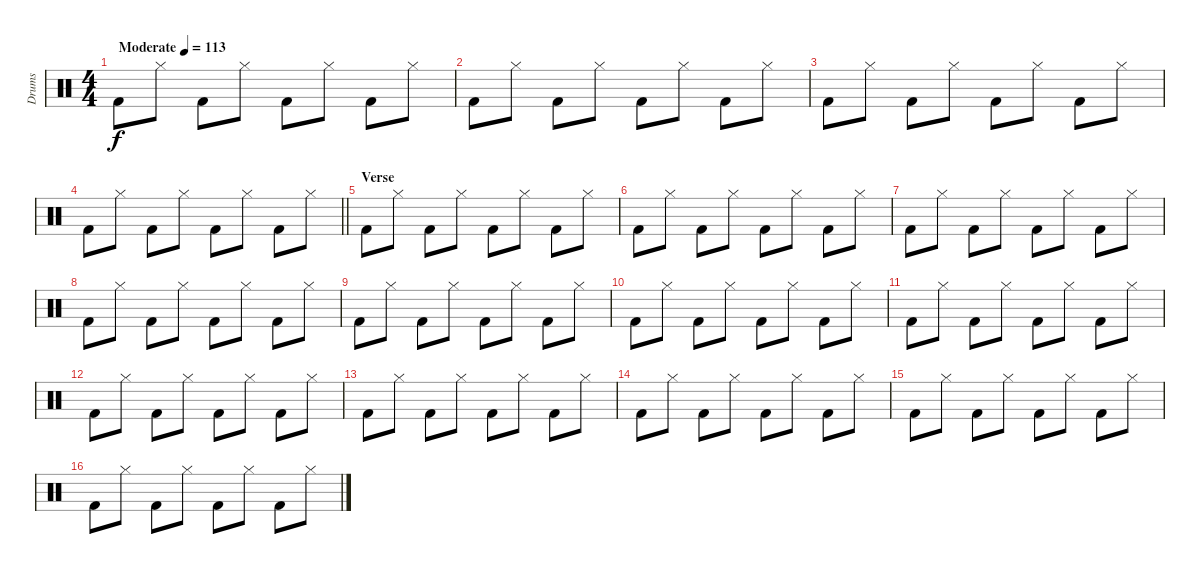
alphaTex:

\track ("Drums" "Drums") {instrument percussion}
\staff {score}
\articulation defaults
\ts (4 4)
\tempo (113 "Moderate")
\clef neutral
\ks c "Kick (hit) 2".8{dy f} "Hi-Hat (closed)".8 "Kick (hit) 2".8 "Hi-Hat (closed)".8 "Kick (hit) 2".8 "Hi-Hat (closed)".8 "Kick (hit) 2".8 "Hi-Hat (closed)".8
|
"Kick (hit) 2".8 "Hi-Hat (closed)".8 "Kick (hit) 2".8 "Hi-Hat (closed)".8 "Kick (hit) 2".8 "Hi-Hat (closed)".8 "Kick (hit) 2".8 "Hi-Hat (closed)".8 |
"Kick (hit) 2".8 "Hi-Hat (closed)".8 "Kick (hit) 2".8 "Hi-Hat (closed)".8 "Kick (hit) 2".8 "Hi-Hat (closed)".8 "Kick (hit) 2".8 "Hi-Hat (closed)".8 |
\barLineRight lightlight "Kick (hit) 2".8 "Hi-Hat (closed)".8 "Kick (hit) 2".8 "Hi-Hat (closed)".8 "Kick (hit) 2".8 "Hi-Hat (closed)".8 "Kick (hit) 2".8 "Hi-Hat (closed)".8
|
\section ("" "Verse")
"Kick (hit) 2".8 "Hi-Hat (closed)".8 "Kick (hit) 2".8 "Hi-Hat (closed)".8 "Kick (hit) 2".8 "Hi-Hat (closed)".8 "Kick (hit) 2".8 "Hi-Hat (closed)".8 |
"Kick (hit) 2".8 "Hi-Hat (closed)".8 "Kick (hit) 2".8 "Hi-Hat (closed)".8 "Kick (hit) 2".8 "Hi-Hat (closed)".8 "Kick (hit) 2".8 "Hi-Hat (closed)".8 |
"Kick (hit) 2".8 "Hi-Hat (closed)".8 "Kick (hit) 2".8 "Hi-Hat (closed)".8 "Kick (hit) 2".8 "Hi-Hat (closed)".8 "Kick (hit) 2".8 "Hi-Hat (closed)".8 |
"Kick (hit) 2".8 "Hi-Hat (closed)".8 "Kick (hit) 2".8 "Hi-Hat (closed)".8 "Kick (hit) 2".8 "Hi-Hat (closed)".8 "Kick (hit) 2".8 "Hi-Hat (closed)".8 |
"Kick (hit) 2".8 "Hi-Hat (closed)".8 "Kick (hit) 2".8 "Hi-Hat (closed)".8 "Kick (hit) 2".8 "Hi-Hat (closed)".8 "Kick (hit) 2".8 "Hi-Hat (closed)".8 |
"Kick (hit) 2".8 "Hi-Hat (closed)".8 "Kick (hit) 2".8 "Hi-Hat (closed)".8 "Kick (hit) 2".8 "Hi-Hat (closed)".8 "Kick (hit) 2".8 "Hi-Hat (closed)".8 |
"Kick (hit) 2".8 "Hi-Hat (closed)".8 "Kick (hit) 2".8 "Hi-Hat (closed)".8 "Kick (hit) 2".8 "Hi-Hat (closed)".8 "Kick (hit) 2".8 "Hi-Hat (closed)".8 |
"Kick (hit) 2".8 "Hi-Hat (closed)".8 "Kick (hit) 2".8 "Hi-Hat (closed)".8 "Kick (hit) 2".8 "Hi-Hat (closed)".8 "Kick (hit) 2".8 "Hi-Hat (closed)".8 |
"Kick (hit) 2".8 "Hi-Hat (closed)".8 "Kick (hit) 2".8 "Hi-Hat (closed)".8 "Kick (hit) 2".8 "Hi-Hat (closed)".8 "Kick (hit) 2".8 "Hi-Hat (closed)".8 |
"Kick (hit) 2".8 "Hi-Hat (closed)".8 "Kick (hit) 2".8 "Hi-Hat (closed)".8 "Kick (hit) 2".8 "Hi-Hat (closed)".8 "Kick (hit) 2".8 "Hi-Hat (closed)".8 |
"Kick (hit) 2".8 "Hi-Hat (closed)".8 "Kick (hit) 2".8 "Hi-Hat (closed)".8 "Kick (hit) 2".8 "Hi-Hat (closed)".8 "Kick (hit) 2".8 "Hi-Hat (closed)".8 |
"Kick (hit) 2".8 "Hi-Hat (closed)".8 "Kick (hit) 2".8 "Hi-Hat (closed)".8 "Kick (hit) 2".8 "Hi-Hat (closed)".8 "Kick (hit) 2".8 "Hi-Hat (closed)".8
